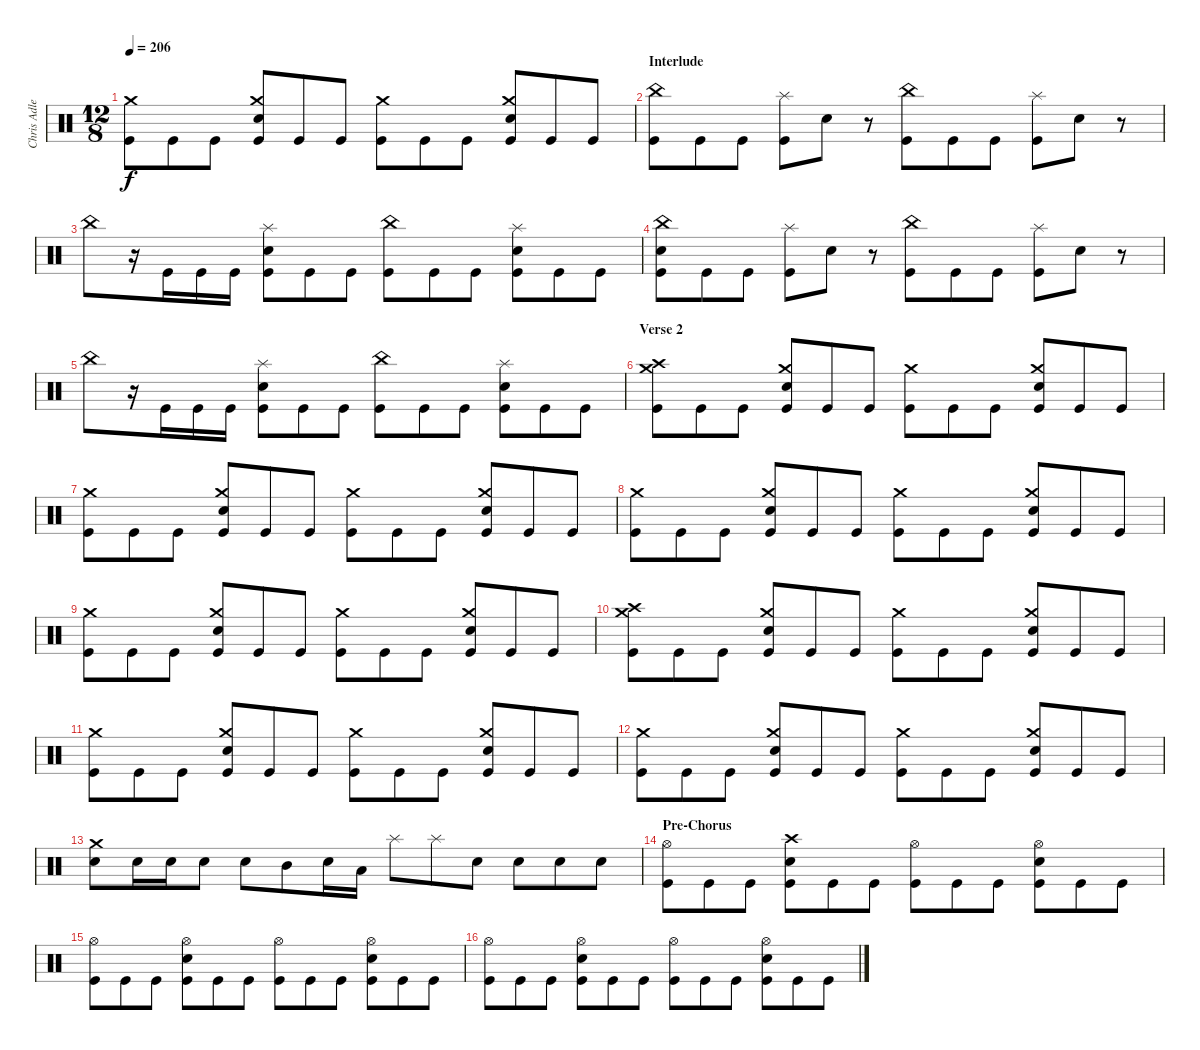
\track ("Chris Adler" "Chris Adle") {instrument percussion}
\staff {score}
\articulation defaults
\ts (12 8)
\tempo 206
\clef neutral
\ks c
("Kick (hit)" "Crash medium (hit)").8{dy f} "Kick (hit)".8 "Kick (hit)".8 ("Snare (hit) 2" "Kick (hit)" "Crash medium (hit)").8 "Kick (hit)".8 "Kick (hit)".8 ("Kick (hit)" "Crash medium (hit)").8 "Kick (hit)".8 "Kick (hit)".8 ("Snare (hit) 2" "Kick (hit)" "Crash medium (hit)").8 "Kick (hit)".8 "Kick (hit)".8 |
\section ("" "Interlude")
("Kick (hit)" "China (hit)").8 "Kick (hit)".8 "Kick (hit)".8 ("Kick (hit)" "Splash (hit)").8 "Snare (hit) 2".8 r.8 ("Kick (hit)" "China (hit)").8 "Kick (hit)".8 "Kick (hit)".8 ("Kick (hit)" "Splash (hit)").8 "Snare (hit) 2".8 r.8 |
"China (hit)".8 r.16 "Kick (hit)".16 "Kick (hit)".16 "Kick (hit)".16 ("Snare (hit) 2" "Kick (hit)" "Splash (hit)").8 "Kick (hit)".8 "Kick (hit)".8 ("Kick (hit)" "China (hit)").8 "Kick (hit)".8 "Kick (hit)".8 ("Snare (hit) 2" "Kick (hit)" "Splash (hit)").8 "Kick (hit)".8 "Kick (hit)".8 |
("Kick (hit)" "China (hit)" "Snare (hit) 2").8 "Kick (hit)".8 "Kick (hit)".8 ("Kick (hit)" "Splash (hit)").8 "Snare (hit) 2".8 r.8 ("Kick (hit)" "China (hit)").8 "Kick (hit)".8 "Kick (hit)".8 ("Kick (hit)" "Splash (hit)").8 "Snare (hit) 2".8 r.8 |
"China (hit)".8 r.16 "Kick (hit)".16 "Kick (hit)".16 "Kick (hit)".16 ("Snare (hit) 2" "Kick (hit)" "Splash (hit)").8 "Kick (hit)".8 "Kick (hit)".8 ("Kick (hit)" "China (hit)").8 "Kick (hit)".8 "Kick (hit)".8 ("Snare (hit) 2" "Kick (hit)" "Splash (hit)").8 "Kick (hit)".8 "Kick (hit)".8 |
\section ("" "Verse 2")
("Kick (hit)" "Crash medium (hit)" "Crash high (hit)").8 "Kick (hit)".8 "Kick (hit)".8 ("Snare (hit) 2" "Kick (hit)" "Crash medium (hit)").8 "Kick (hit)".8 "Kick (hit)".8 ("Kick (hit)" "Crash medium (hit)").8 "Kick (hit)".8 "Kick (hit)".8 ("Snare (hit) 2" "Kick (hit)" "Crash medium (hit)").8 "Kick (hit)".8 "Kick (hit)".8 |
("Kick (hit)" "Crash medium (hit)").8 "Kick (hit)".8 "Kick (hit)".8 ("Snare (hit) 2" "Kick (hit)" "Crash medium (hit)").8 "Kick (hit)".8 "Kick (hit)".8 ("Kick (hit)" "Crash medium (hit)").8 "Kick (hit)".8 "Kick (hit)".8 ("Snare (hit) 2" "Kick (hit)" "Crash medium (hit)").8 "Kick (hit)".8 "Kick (hit)".8 |
("Kick (hit)" "Crash medium (hit)").8 "Kick (hit)".8 "Kick (hit)".8 ("Snare (hit) 2" "Kick (hit)" "Crash medium (hit)").8 "Kick (hit)".8 "Kick (hit)".8 ("Kick (hit)" "Crash medium (hit)").8 "Kick (hit)".8 "Kick (hit)".8 ("Snare (hit) 2" "Kick (hit)" "Crash medium (hit)").8 "Kick (hit)".8 "Kick (hit)".8 |
("Kick (hit)" "Crash medium (hit)").8 "Kick (hit)".8 "Kick (hit)".8 ("Snare (hit) 2" "Kick (hit)" "Crash medium (hit)").8 "Kick (hit)".8 "Kick (hit)".8 ("Kick (hit)" "Crash medium (hit)").8 "Kick (hit)".8 "Kick (hit)".8 ("Snare (hit) 2" "Kick (hit)" "Crash medium (hit)").8 "Kick (hit)".8 "Kick (hit)".8 |
("Kick (hit)" "Crash medium (hit)" "Crash high (hit)").8 "Kick (hit)".8 "Kick (hit)".8 ("Snare (hit) 2" "Kick (hit)" "Crash medium (hit)").8 "Kick (hit)".8 "Kick (hit)".8 ("Kick (hit)" "Crash medium (hit)").8 "Kick (hit)".8 "Kick (hit)".8 ("Snare (hit) 2" "Kick (hit)" "Crash medium (hit)").8 "Kick (hit)".8 "Kick (hit)".8 |
("Kick (hit)" "Crash medium (hit)").8 "Kick (hit)".8 "Kick (hit)".8 ("Snare (hit) 2" "Kick (hit)" "Crash medium (hit)").8 "Kick (hit)".8 "Kick (hit)".8 ("Kick (hit)" "Crash medium (hit)").8 "Kick (hit)".8 "Kick (hit)".8 ("Snare (hit) 2" "Kick (hit)" "Crash medium (hit)").8 "Kick (hit)".8 "Kick (hit)".8 |
("Kick (hit)" "Crash medium (hit)").8 "Kick (hit)".8 "Kick (hit)".8 ("Snare (hit) 2" "Kick (hit)" "Crash medium (hit)").8 "Kick (hit)".8 "Kick (hit)".8 ("Kick (hit)" "Crash medium (hit)").8 "Kick (hit)".8 "Kick (hit)".8 ("Snare (hit) 2" "Kick (hit)" "Crash medium (hit)").8 "Kick (hit)".8 "Kick (hit)".8 |
("Snare (hit) 2" "Crash medium (hit)").8 "Snare (hit) 2".16 "Snare (hit) 2".16 "Snare (hit) 2".8 "Snare (hit) 2".8 "Mid Tom (hit)".8 "Snare (hit) 2".16 "Low Tom (hit)".16 "Splash (hit)".8 "Splash (hit)".8 "Snare (hit) 2".8 "Snare (hit) 2".8 "Snare (hit) 2".8 "Snare (hit) 2".8 |
\section ("" "Pre-Chorus")
("Kick (hit)" "Hi-Hat (open)").8 "Kick (hit)".8 "Kick (hit)".8 ("Snare (hit) 2" "Kick (hit)" "Crash high (hit)").8 "Kick (hit)".8 "Kick (hit)".8 ("Kick (hit)" "Hi-Hat (open)").8 "Kick (hit)".8 "Kick (hit)".8 ("Snare (hit) 2" "Kick (hit)" "Hi-Hat (open)").8 "Kick (hit)".8 "Kick (hit)".8 |
("Kick (hit)" "Hi-Hat (open)").8 "Kick (hit)".8 "Kick (hit)".8 ("Snare (hit) 2" "Kick (hit)" "Hi-Hat (open)").8 "Kick (hit)".8 "Kick (hit)".8 ("Kick (hit)" "Hi-Hat (open)").8 "Kick (hit)".8 "Kick (hit)".8 ("Snare (hit) 2" "Kick (hit)" "Hi-Hat (open)").8 "Kick (hit)".8 "Kick (hit)".8 |
("Kick (hit)" "Hi-Hat (open)").8 "Kick (hit)".8 "Kick (hit)".8 ("Snare (hit) 2" "Kick (hit)" "Hi-Hat (open)").8 "Kick (hit)".8 "Kick (hit)".8 ("Kick (hit)" "Hi-Hat (open)").8 "Kick (hit)".8 "Kick (hit)".8 ("Snare (hit) 2" "Kick (hit)" "Hi-Hat (open)").8 "Kick (hit)".8 "Kick (hit)".8
